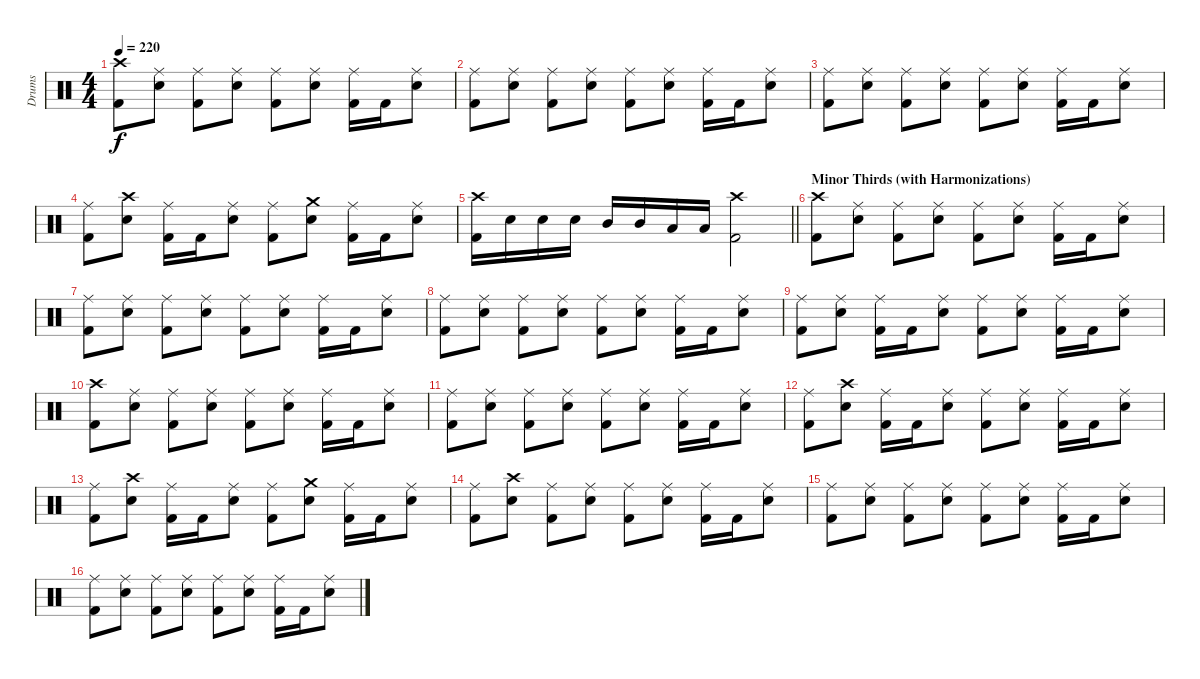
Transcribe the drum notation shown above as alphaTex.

\track ("Drums" "Drums") {instrument percussion}
\staff {score}
\articulation defaults
\ts (4 4)
\tempo 220
\clef neutral
\ks c
("Crash high (hit)" "Kick (hit) 2").8{dy f} ("Ride (middle)" "Snare (hit) 2").8 ("Ride (middle)" "Kick (hit) 2").8 ("Ride (middle)" "Snare (hit) 2").8 ("Ride (middle)" "Kick (hit) 2").8 ("Ride (middle)" "Snare (hit) 2").8 ("Ride (middle)" "Kick (hit) 2").16 "Kick (hit) 2".16 ("Ride (middle)" "Snare (hit) 2").8 |
("Ride (middle)" "Kick (hit) 2").8 ("Ride (middle)" "Snare (hit) 2").8 ("Ride (middle)" "Kick (hit) 2").8 ("Ride (middle)" "Snare (hit) 2").8 ("Ride (middle)" "Kick (hit) 2").8 ("Ride (middle)" "Snare (hit) 2").8 ("Ride (middle)" "Kick (hit) 2").16 "Kick (hit) 2".16 ("Ride (middle)" "Snare (hit) 2").8 |
("Ride (middle)" "Kick (hit) 2").8 ("Ride (middle)" "Snare (hit) 2").8 ("Ride (middle)" "Kick (hit) 2").8 ("Ride (middle)" "Snare (hit) 2").8 ("Ride (middle)" "Kick (hit) 2").8 ("Ride (middle)" "Snare (hit) 2").8 ("Ride (middle)" "Kick (hit) 2").16 "Kick (hit) 2".16 ("Ride (middle)" "Snare (hit) 2").8 |
("Ride (middle)" "Kick (hit) 2").8 ("Crash high (hit)" "Snare (hit) 2").8 ("Ride (middle)" "Kick (hit) 2").16 "Kick (hit) 2".16 ("Ride (middle)" "Snare (hit) 2").8 ("Ride (middle)" "Kick (hit) 2").8 ("Crash medium (hit)" "Snare (hit) 2").8 ("Ride (middle)" "Kick (hit) 2").16 "Kick (hit) 2".16 ("Ride (middle)" "Snare (hit) 2").8 |
\barLineRight lightlight
("Crash high (hit)" "Kick (hit) 2").16 "Snare (hit) 2".16 "Snare (hit) 2".16 "Snare (hit) 2".16 "Mid Tom (hit)".16 "Mid Tom (hit)".16 "Low Tom (hit)".16 "Low Tom (hit)".16 ("Crash high (hit)" "Kick (hit) 2").2 |
\section ("" "Minor Thirds (with Harmonizations)")
("Crash high (hit)" "Kick (hit) 2").8 ("Ride (middle)" "Snare (hit) 2").8 ("Ride (middle)" "Kick (hit) 2").8 ("Ride (middle)" "Snare (hit) 2").8 ("Ride (middle)" "Kick (hit) 2").8 ("Ride (middle)" "Snare (hit) 2").8 ("Ride (middle)" "Kick (hit) 2").16 "Kick (hit) 2".16 ("Ride (middle)" "Snare (hit) 2").8 |
("Ride (middle)" "Kick (hit) 2").8 ("Ride (middle)" "Snare (hit) 2").8 ("Ride (middle)" "Kick (hit) 2").8 ("Ride (middle)" "Snare (hit) 2").8 ("Ride (middle)" "Kick (hit) 2").8 ("Ride (middle)" "Snare (hit) 2").8 ("Ride (middle)" "Kick (hit) 2").16 "Kick (hit) 2".16 ("Ride (middle)" "Snare (hit) 2").8 |
("Ride (middle)" "Kick (hit) 2").8 ("Ride (middle)" "Snare (hit) 2").8 ("Ride (middle)" "Kick (hit) 2").8 ("Ride (middle)" "Snare (hit) 2").8 ("Ride (middle)" "Kick (hit) 2").8 ("Ride (middle)" "Snare (hit) 2").8 ("Ride (middle)" "Kick (hit) 2").16 "Kick (hit) 2".16 ("Ride (middle)" "Snare (hit) 2").8 |
("Ride (middle)" "Kick (hit) 2").8 ("Ride (middle)" "Snare (hit) 2").8 ("Ride (middle)" "Kick (hit) 2").16 "Kick (hit) 2".16 ("Ride (middle)" "Snare (hit) 2").8 ("Ride (middle)" "Kick (hit) 2").8 ("Ride (middle)" "Snare (hit) 2").8 ("Ride (middle)" "Kick (hit) 2").16 "Kick (hit) 2".16 ("Ride (middle)" "Snare (hit) 2").8 |
("Crash high (hit)" "Kick (hit) 2").8 ("Ride (middle)" "Snare (hit) 2").8 ("Ride (middle)" "Kick (hit) 2").8 ("Ride (middle)" "Snare (hit) 2").8 ("Ride (middle)" "Kick (hit) 2").8 ("Ride (middle)" "Snare (hit) 2").8 ("Ride (middle)" "Kick (hit) 2").16 "Kick (hit) 2".16 ("Ride (middle)" "Snare (hit) 2").8 |
("Ride (middle)" "Kick (hit) 2").8 ("Ride (middle)" "Snare (hit) 2").8 ("Ride (middle)" "Kick (hit) 2").8 ("Ride (middle)" "Snare (hit) 2").8 ("Ride (middle)" "Kick (hit) 2").8 ("Ride (middle)" "Snare (hit) 2").8 ("Ride (middle)" "Kick (hit) 2").16 "Kick (hit) 2".16 ("Ride (middle)" "Snare (hit) 2").8 |
("Ride (middle)" "Kick (hit) 2").8 ("Crash high (hit)" "Snare (hit) 2").8 ("Ride (middle)" "Kick (hit) 2").16 "Kick (hit) 2".16 ("Ride (middle)" "Snare (hit) 2").8 ("Ride (middle)" "Kick (hit) 2").8 ("Ride (middle)" "Snare (hit) 2").8 ("Ride (middle)" "Kick (hit) 2").16 "Kick (hit) 2".16 ("Ride (middle)" "Snare (hit) 2").8 |
("Ride (middle)" "Kick (hit) 2").8 ("Crash high (hit)" "Snare (hit) 2").8 ("Ride (middle)" "Kick (hit) 2").16 "Kick (hit) 2".16 ("Ride (middle)" "Snare (hit) 2").8 ("Ride (middle)" "Kick (hit) 2").8 ("Crash medium (hit)" "Snare (hit) 2").8 ("Ride (middle)" "Kick (hit) 2").16 "Kick (hit) 2".16 ("Ride (middle)" "Snare (hit) 2").8 |
("Ride (middle)" "Kick (hit) 2").8 ("Crash high (hit)" "Snare (hit) 2").8 ("Ride (middle)" "Kick (hit) 2").8 ("Ride (middle)" "Snare (hit) 2").8 ("Ride (middle)" "Kick (hit) 2").8 ("Ride (middle)" "Snare (hit) 2").8 ("Ride (middle)" "Kick (hit) 2").16 "Kick (hit) 2".16 ("Ride (middle)" "Snare (hit) 2").8 |
("Ride (middle)" "Kick (hit) 2").8 ("Ride (middle)" "Snare (hit) 2").8 ("Ride (middle)" "Kick (hit) 2").8 ("Ride (middle)" "Snare (hit) 2").8 ("Ride (middle)" "Kick (hit) 2").8 ("Ride (middle)" "Snare (hit) 2").8 ("Ride (middle)" "Kick (hit) 2").16 "Kick (hit) 2".16 ("Ride (middle)" "Snare (hit) 2").8 |
("Ride (middle)" "Kick (hit) 2").8 ("Ride (middle)" "Snare (hit) 2").8 ("Ride (middle)" "Kick (hit) 2").8 ("Ride (middle)" "Snare (hit) 2").8 ("Ride (middle)" "Kick (hit) 2").8 ("Ride (middle)" "Snare (hit) 2").8 ("Ride (middle)" "Kick (hit) 2").16 "Kick (hit) 2".16 ("Ride (middle)" "Snare (hit) 2").8
